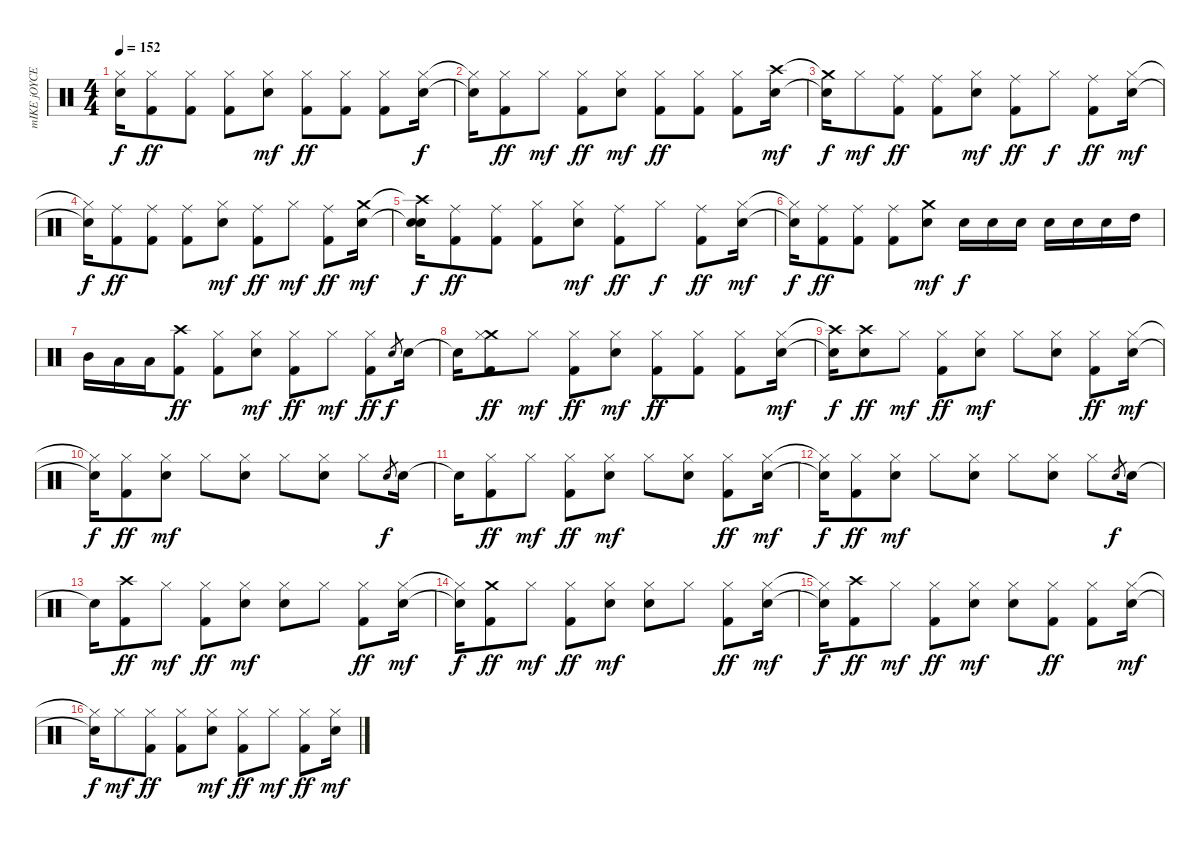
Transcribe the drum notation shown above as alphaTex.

\track ("mIKE jOYCE" "mIKE jOYCE") {instrument percussion}
\staff {score}
\articulation defaults
\ts (4 4)
\tempo 152
\clef neutral
\ks c
("Hi-Hat (closed)"{t} "Electric Snare (hit)"{t}).16{dy f} ("Hi-Hat (closed)" "Kick (hit) 2").8{dy ff} ("Hi-Hat (closed)" "Kick (hit) 2").8 ("Hi-Hat (closed)" "Kick (hit) 2").8 ("Hi-Hat (closed)" "Electric Snare (hit)").8{dy mf} ("Hi-Hat (closed)" "Kick (hit) 2").8{dy ff} ("Hi-Hat (closed)" "Kick (hit) 2").8 ("Hi-Hat (closed)" "Kick (hit) 2").8 ("Hi-Hat (closed)" "Electric Snare (hit)").16{dy f} |
("Hi-Hat (closed)"{t} "Electric Snare (hit)"{t}).16 ("Hi-Hat (closed)" "Kick (hit) 2").8{dy ff} "Hi-Hat (closed)".8{dy mf} ("Hi-Hat (closed)" "Kick (hit) 2").8{dy ff} ("Hi-Hat (closed)" "Electric Snare (hit)").8{dy mf} ("Hi-Hat (closed)" "Kick (hit) 2").8{dy ff} ("Hi-Hat (closed)" "Kick (hit) 2").8 ("Hi-Hat (closed)" "Kick (hit) 2").8 ("Electric Snare (hit)" "Crash high (hit)").16{dy mf} |
("Electric Snare (hit)"{t} "Crash medium (hit)"{t}).16{dy f} "Hi-Hat (closed)".8{dy mf} ("Ride (middle)" "Kick (hit) 2").8{dy ff} ("Ride (middle)" "Kick (hit) 2").8 ("Hi-Hat (closed)" "Electric Snare (hit)").8{dy mf} ("Ride (middle)" "Kick (hit) 2").8{dy ff} "Hi-Hat (closed)".8{dy f} ("Ride (middle)" "Kick (hit) 2").8{dy ff} ("Hi-Hat (closed)" "Electric Snare (hit)").16{dy mf} |
("Hi-Hat (closed)"{t} "Electric Snare (hit)"{t}).16{dy f} ("Ride (middle)" "Kick (hit) 2").8{dy ff} ("Ride (middle)" "Kick (hit) 2").8 ("Ride (middle)" "Kick (hit) 2").8 ("Hi-Hat (closed)" "Electric Snare (hit)").8{dy mf} ("Ride (middle)" "Kick (hit) 2").8{dy ff} "Hi-Hat (closed)".8{dy mf} ("Ride (middle)" "Kick (hit) 2").8{dy ff} ("Crash medium (hit)" "Electric Snare (hit)").16{dy mf} |
("Crash high (hit)"{t} "Electric Snare (hit)"{t} "Electric Snare (hit)").16{dy f} ("Ride (middle)" "Kick (hit) 2").8{dy ff} ("Ride (middle)" "Kick (hit) 2").8 ("Hi-Hat (closed)" "Kick (hit) 2").8 ("Hi-Hat (closed)" "Electric Snare (hit)").8{dy mf} ("Ride (middle)" "Kick (hit) 2").8{dy ff} "Hi-Hat (closed)".8{dy f} ("Ride (middle)" "Kick (hit) 2").8{dy ff} ("Hi-Hat (closed)" "Electric Snare (hit)").16{dy mf} |
("Hi-Hat (closed)"{t} "Electric Snare (hit)"{t}).16{dy f} ("Ride (middle)" "Kick (hit) 2").8{dy ff} ("Ride (middle)" "Kick (hit) 2").8 ("Ride (middle)" "Kick (hit) 2").8 ("Crash medium (hit)" "Electric Snare (hit)").8{dy mf} "Electric Snare (hit)".16{dy f} "Electric Snare (hit)".16 "Electric Snare (hit)".16 "Electric Snare (hit)".16 "Electric Snare (hit)".16 "Electric Snare (hit)".16 "High Tom (hit)".16 |
"Mid Tom (hit)".16 "Low Tom (hit)".16 "Low Floor Tom (hit)".16 ("Crash high (hit)" "Kick (hit) 2").8{dy ff} ("Hi-Hat (closed)" "Kick (hit) 2").8 ("Hi-Hat (closed)" "Electric Snare (hit)").8{dy mf} ("Hi-Hat (closed)" "Kick (hit) 2").8{dy ff} "Hi-Hat (closed)".8{dy mf} ("Hi-Hat (closed)" "Kick (hit) 2").8{dy ff} "Electric Snare (hit)".8{gr dy f} "Electric Snare (hit)".16 |
"Electric Snare (hit)"{t}.16 ("Crash medium (hit)" "Hi-Hat (closed)" "Kick (hit) 2").8{dy ff} "Hi-Hat (closed)".8{dy mf} ("Hi-Hat (closed)" "Kick (hit) 2").8{dy ff} ("Hi-Hat (closed)" "Electric Snare (hit)").8{dy mf} ("Hi-Hat (closed)" "Kick (hit) 2").8{dy ff} ("Hi-Hat (closed)" "Kick (hit) 2").8 ("Hi-Hat (closed)" "Kick (hit) 2").8 ("Hi-Hat (closed)" "Electric Snare (hit)").16{dy mf} |
("Crash high (hit)"{t} "Electric Snare (hit)"{t}).16{dy f} ("Crash high (hit)" "Electric Snare (hit)").8{dy ff} "Hi-Hat (closed)".8{dy mf} ("Hi-Hat (closed)" "Kick (hit) 2").8{dy ff} ("Hi-Hat (closed)" "Electric Snare (hit)").8{dy mf} "Hi-Hat (closed)".8 ("Hi-Hat (closed)" "Electric Snare (hit)").8 ("Hi-Hat (closed)" "Kick (hit) 2").8{dy ff} ("Hi-Hat (closed)" "Electric Snare (hit)").16{dy mf} |
("Hi-Hat (closed)"{t} "Electric Snare (hit)"{t}).16{dy f} ("Hi-Hat (closed)" "Kick (hit) 2").8{dy ff} ("Hi-Hat (closed)" "Electric Snare (hit)").8{dy mf} "Hi-Hat (closed)".8 ("Hi-Hat (closed)" "Electric Snare (hit)").8 "Hi-Hat (closed)".8 ("Hi-Hat (closed)" "Electric Snare (hit)").8 "Hi-Hat (closed)".8 "Electric Snare (hit)".8{gr dy f} "Electric Snare (hit)".16 |
"Electric Snare (hit)"{t}.16 ("Hi-Hat (closed)" "Kick (hit) 2").8{dy ff} "Hi-Hat (closed)".8{dy mf} ("Hi-Hat (closed)" "Kick (hit) 2").8{dy ff} ("Hi-Hat (closed)" "Electric Snare (hit)").8{dy mf} "Hi-Hat (closed)".8 ("Hi-Hat (closed)" "Electric Snare (hit)").8 ("Hi-Hat (closed)" "Kick (hit) 2").8{dy ff} ("Hi-Hat (closed)" "Electric Snare (hit)").16{dy mf} |
("Hi-Hat (closed)"{t} "Electric Snare (hit)"{t}).16{dy f} ("Hi-Hat (closed)" "Kick (hit) 2").8{dy ff} ("Hi-Hat (closed)" "Electric Snare (hit)").8{dy mf} "Hi-Hat (closed)".8 ("Hi-Hat (closed)" "Electric Snare (hit)").8 "Hi-Hat (closed)".8 ("Hi-Hat (closed)" "Electric Snare (hit)").8 "Hi-Hat (closed)".8 "Electric Snare (hit)".8{gr dy f} "Electric Snare (hit)".16 |
"Electric Snare (hit)"{t}.16 ("Crash high (hit)" "Kick (hit) 2").8{dy ff} "Hi-Hat (closed)".8{dy mf} ("Hi-Hat (closed)" "Kick (hit) 2").8{dy ff} ("Hi-Hat (closed)" "Electric Snare (hit)").8{dy mf} ("Hi-Hat (closed)" "Electric Snare (hit)").8 "Hi-Hat (closed)".8 ("Hi-Hat (closed)" "Kick (hit) 2").8{dy ff} ("Hi-Hat (closed)" "Electric Snare (hit)").16{dy mf} |
("Hi-Hat (closed)"{t} "Electric Snare (hit)"{t}).16{dy f} ("Crash medium (hit)" "Kick (hit) 2").8{dy ff} "Hi-Hat (closed)".8{dy mf} ("Hi-Hat (closed)" "Kick (hit) 2").8{dy ff} ("Hi-Hat (closed)" "Electric Snare (hit)").8{dy mf} ("Hi-Hat (closed)" "Electric Snare (hit)").8 "Hi-Hat (closed)".8 ("Hi-Hat (closed)" "Kick (hit) 2").8{dy ff} ("Hi-Hat (closed)" "Electric Snare (hit)").16{dy mf} |
("Hi-Hat (closed)"{t} "Electric Snare (hit)"{t}).16{dy f} ("Crash high (hit)" "Kick (hit) 2").8{dy ff} "Hi-Hat (closed)".8{dy mf} ("Hi-Hat (closed)" "Kick (hit) 2").8{dy ff} ("Hi-Hat (closed)" "Electric Snare (hit)").8{dy mf} ("Hi-Hat (closed)" "Electric Snare (hit)").8 ("Hi-Hat (closed)" "Kick (hit) 2").8{dy ff} ("Hi-Hat (closed)" "Kick (hit) 2").8 ("Hi-Hat (closed)" "Electric Snare (hit)").16{dy mf} |
("Hi-Hat (closed)"{t} "Electric Snare (hit)"{t}).16{dy f} "Hi-Hat (closed)".8{dy mf} ("Hi-Hat (closed)" "Kick (hit) 2").8{dy ff} ("Hi-Hat (closed)" "Kick (hit) 2").8 ("Hi-Hat (closed)" "Electric Snare (hit)").8{dy mf} ("Hi-Hat (closed)" "Kick (hit) 2").8{dy ff} "Hi-Hat (closed)".8{dy mf} ("Hi-Hat (closed)" "Kick (hit) 2").8{dy ff} ("Hi-Hat (closed)" "Electric Snare (hit)").16{dy mf}
